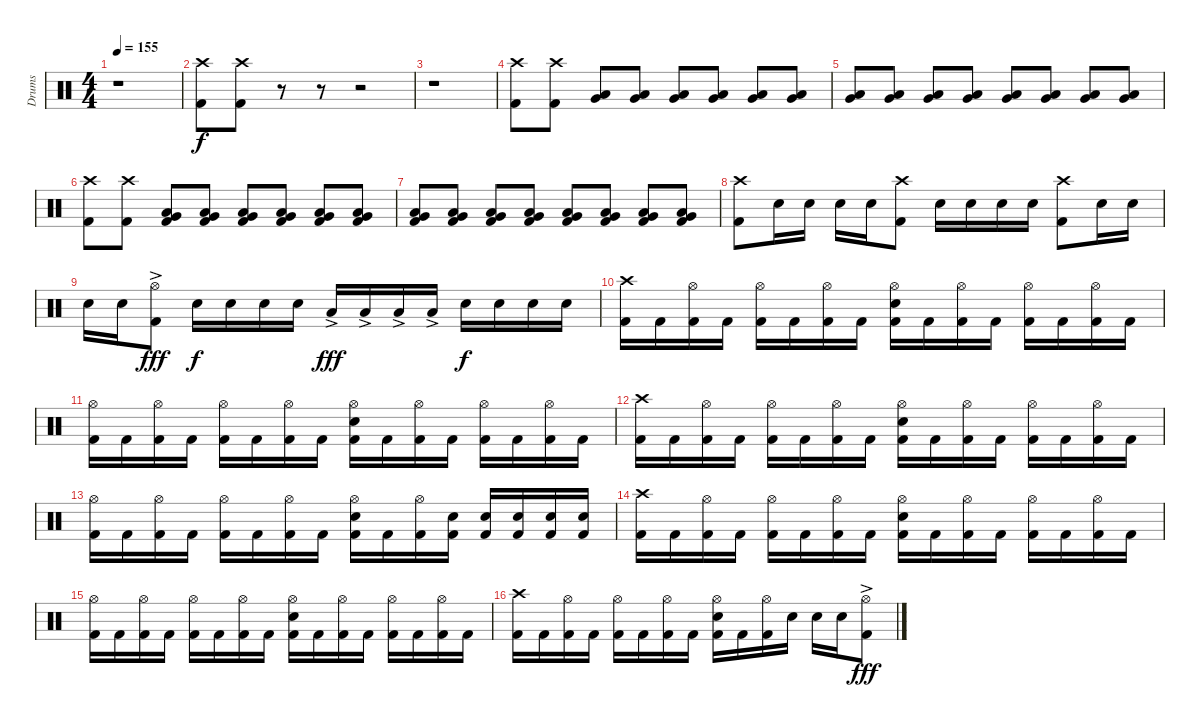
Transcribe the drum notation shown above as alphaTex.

\track ("Drums" "Drums") {instrument percussion}
\staff {score}
\articulation defaults
\ts (4 4)
\tempo 155
\clef neutral
\ks c
r.1{dy f} |
("Crash high (hit)" "Kick (hit) 2").8 ("Crash high (hit)" "Kick (hit) 2").8 r.8{volume 0} r.8 r.2{volume 16} |
r.1 |
("Crash high (hit)" "Kick (hit) 2").8 ("Crash high (hit)" "Kick (hit) 2").8 ("Low Tom (hit)" "Very Low Tom (hit)").8 ("Low Tom (hit)" "Very Low Tom (hit)").8 ("Low Tom (hit)" "Very Low Tom (hit)").8 ("Low Tom (hit)" "Very Low Tom (hit)").8 ("Low Tom (hit)" "Very Low Tom (hit)").8 ("Low Tom (hit)" "Very Low Tom (hit)").8 |
("Low Tom (hit)" "Very Low Tom (hit)").8 ("Low Tom (hit)" "Very Low Tom (hit)").8 ("Low Tom (hit)" "Very Low Tom (hit)").8 ("Low Tom (hit)" "Very Low Tom (hit)").8 ("Low Tom (hit)" "Very Low Tom (hit)").8 ("Low Tom (hit)" "Very Low Tom (hit)").8 ("Low Tom (hit)" "Very Low Tom (hit)").8 ("Low Tom (hit)" "Very Low Tom (hit)").8 |
("Crash high (hit)" "Kick (hit) 2").8 ("Crash high (hit)" "Kick (hit) 2").8 ("Low Tom (hit)" "Very Low Tom (hit)" "Kick (hit) 2").8 ("Low Tom (hit)" "Very Low Tom (hit)" "Kick (hit) 2").8 ("Low Tom (hit)" "Very Low Tom (hit)" "Kick (hit) 2").8 ("Low Tom (hit)" "Very Low Tom (hit)" "Kick (hit) 2").8 ("Low Tom (hit)" "Very Low Tom (hit)" "Kick (hit) 2").8 ("Low Tom (hit)" "Very Low Tom (hit)" "Kick (hit) 2").8 |
("Low Tom (hit)" "Very Low Tom (hit)" "Kick (hit) 2").8 ("Low Tom (hit)" "Very Low Tom (hit)" "Kick (hit) 2").8 ("Low Tom (hit)" "Very Low Tom (hit)" "Kick (hit) 2").8 ("Low Tom (hit)" "Very Low Tom (hit)" "Kick (hit) 2").8 ("Low Tom (hit)" "Very Low Tom (hit)" "Kick (hit) 2").8 ("Low Tom (hit)" "Very Low Tom (hit)" "Kick (hit) 2").8 ("Low Tom (hit)" "Very Low Tom (hit)" "Kick (hit) 2").8 ("Low Tom (hit)" "Very Low Tom (hit)" "Kick (hit) 2").8 |
("Crash high (hit)" "Kick (hit) 2").8 "Snare (hit) 2".16 "Snare (hit) 2".16 "Snare (hit) 2".16 "Snare (hit) 2".16 ("Crash high (hit)" "Kick (hit) 2").8 "Snare (hit) 2".16 "Snare (hit) 2".16 "Snare (hit) 2".16 "Snare (hit) 2".16 ("Crash high (hit)" "Kick (hit) 2").8 "Snare (hit) 2".16 "Snare (hit) 2".16 |
"Snare (hit) 2".16 "Snare (hit) 2".16 ("Hi-Hat (open)"{ac} "Kick (hit) 2").8{dy fff} "Snare (hit) 2".16{dy f} "Snare (hit) 2".16 "Snare (hit) 2".16 "Snare (hit) 2".16 "Low Tom (hit)"{ac}.16{dy fff} "Low Tom (hit)"{ac}.16 "Low Tom (hit)"{ac}.16 "Low Tom (hit)"{ac}.16 "Snare (hit) 2".16{dy f} "Snare (hit) 2".16 "Snare (hit) 2".16 "Snare (hit) 2".16 |
("Crash high (hit)" "Kick (hit) 2").16 "Kick (hit) 2".16 ("Hi-Hat (open)" "Kick (hit) 2").16 "Kick (hit) 2".16 ("Hi-Hat (open)" "Kick (hit) 2").16 "Kick (hit) 2".16 ("Hi-Hat (open)" "Kick (hit) 2").16 "Kick (hit) 2".16 ("Hi-Hat (open)" "Snare (hit) 2" "Kick (hit) 2").16 "Kick (hit) 2".16 ("Hi-Hat (open)" "Kick (hit) 2").16 "Kick (hit) 2".16 ("Hi-Hat (open)" "Kick (hit) 2").16 "Kick (hit) 2".16 ("Hi-Hat (open)" "Kick (hit) 2").16 "Kick (hit) 2".16 |
("Hi-Hat (open)" "Kick (hit) 2").16 "Kick (hit) 2".16 ("Hi-Hat (open)" "Kick (hit) 2").16 "Kick (hit) 2".16 ("Hi-Hat (open)" "Kick (hit) 2").16 "Kick (hit) 2".16 ("Hi-Hat (open)" "Kick (hit) 2").16 "Kick (hit) 2".16 ("Hi-Hat (open)" "Snare (hit) 2" "Kick (hit) 2").16 "Kick (hit) 2".16 ("Hi-Hat (open)" "Kick (hit) 2").16 "Kick (hit) 2".16 ("Hi-Hat (open)" "Kick (hit) 2").16 "Kick (hit) 2".16 ("Hi-Hat (open)" "Kick (hit) 2").16 "Kick (hit) 2".16 |
("Crash high (hit)" "Kick (hit) 2").16 "Kick (hit) 2".16 ("Hi-Hat (open)" "Kick (hit) 2").16 "Kick (hit) 2".16 ("Hi-Hat (open)" "Kick (hit) 2").16 "Kick (hit) 2".16 ("Hi-Hat (open)" "Kick (hit) 2").16 "Kick (hit) 2".16 ("Hi-Hat (open)" "Snare (hit) 2" "Kick (hit) 2").16 "Kick (hit) 2".16 ("Hi-Hat (open)" "Kick (hit) 2").16 "Kick (hit) 2".16 ("Hi-Hat (open)" "Kick (hit) 2").16 "Kick (hit) 2".16 ("Hi-Hat (open)" "Kick (hit) 2").16 "Kick (hit) 2".16 |
("Hi-Hat (open)" "Kick (hit) 2").16 "Kick (hit) 2".16 ("Hi-Hat (open)" "Kick (hit) 2").16 "Kick (hit) 2".16 ("Hi-Hat (open)" "Kick (hit) 2").16 "Kick (hit) 2".16 ("Hi-Hat (open)" "Kick (hit) 2").16 "Kick (hit) 2".16 ("Hi-Hat (open)" "Snare (hit) 2" "Kick (hit) 2").16 "Kick (hit) 2".16 ("Hi-Hat (open)" "Kick (hit) 2").16 ("Snare (hit) 2" "Kick (hit) 2").16 ("Snare (hit) 2" "Kick (hit) 2").16 ("Snare (hit) 2" "Kick (hit) 2").16 ("Snare (hit) 2" "Kick (hit) 2").16 ("Snare (hit) 2" "Kick (hit) 2").16 |
("Crash high (hit)" "Kick (hit) 2").16 "Kick (hit) 2".16 ("Hi-Hat (open)" "Kick (hit) 2").16 "Kick (hit) 2".16 ("Hi-Hat (open)" "Kick (hit) 2").16 "Kick (hit) 2".16 ("Hi-Hat (open)" "Kick (hit) 2").16 "Kick (hit) 2".16 ("Hi-Hat (open)" "Snare (hit) 2" "Kick (hit) 2").16 "Kick (hit) 2".16 ("Hi-Hat (open)" "Kick (hit) 2").16 "Kick (hit) 2".16 ("Hi-Hat (open)" "Kick (hit) 2").16 "Kick (hit) 2".16 ("Hi-Hat (open)" "Kick (hit) 2").16 "Kick (hit) 2".16 |
("Hi-Hat (open)" "Kick (hit) 2").16 "Kick (hit) 2".16 ("Hi-Hat (open)" "Kick (hit) 2").16 "Kick (hit) 2".16 ("Hi-Hat (open)" "Kick (hit) 2").16 "Kick (hit) 2".16 ("Hi-Hat (open)" "Kick (hit) 2").16 "Kick (hit) 2".16 ("Hi-Hat (open)" "Snare (hit) 2" "Kick (hit) 2").16 "Kick (hit) 2".16 ("Hi-Hat (open)" "Kick (hit) 2").16 "Kick (hit) 2".16 ("Hi-Hat (open)" "Kick (hit) 2").16 "Kick (hit) 2".16 ("Hi-Hat (open)" "Kick (hit) 2").16 "Kick (hit) 2".16 |
("Crash high (hit)" "Kick (hit) 2").16 "Kick (hit) 2".16 ("Hi-Hat (open)" "Kick (hit) 2").16 "Kick (hit) 2".16 ("Hi-Hat (open)" "Kick (hit) 2").16 "Kick (hit) 2".16 ("Hi-Hat (open)" "Kick (hit) 2").16 "Kick (hit) 2".16 ("Hi-Hat (open)" "Snare (hit) 2" "Kick (hit) 2").16 "Kick (hit) 2".16 ("Hi-Hat (open)" "Kick (hit) 2").16 "Snare (hit) 2".16 "Snare (hit) 2".16 "Snare (hit) 2".16 ("Hi-Hat (open)"{ac} "Kick (hit) 2").8{dy fff}
